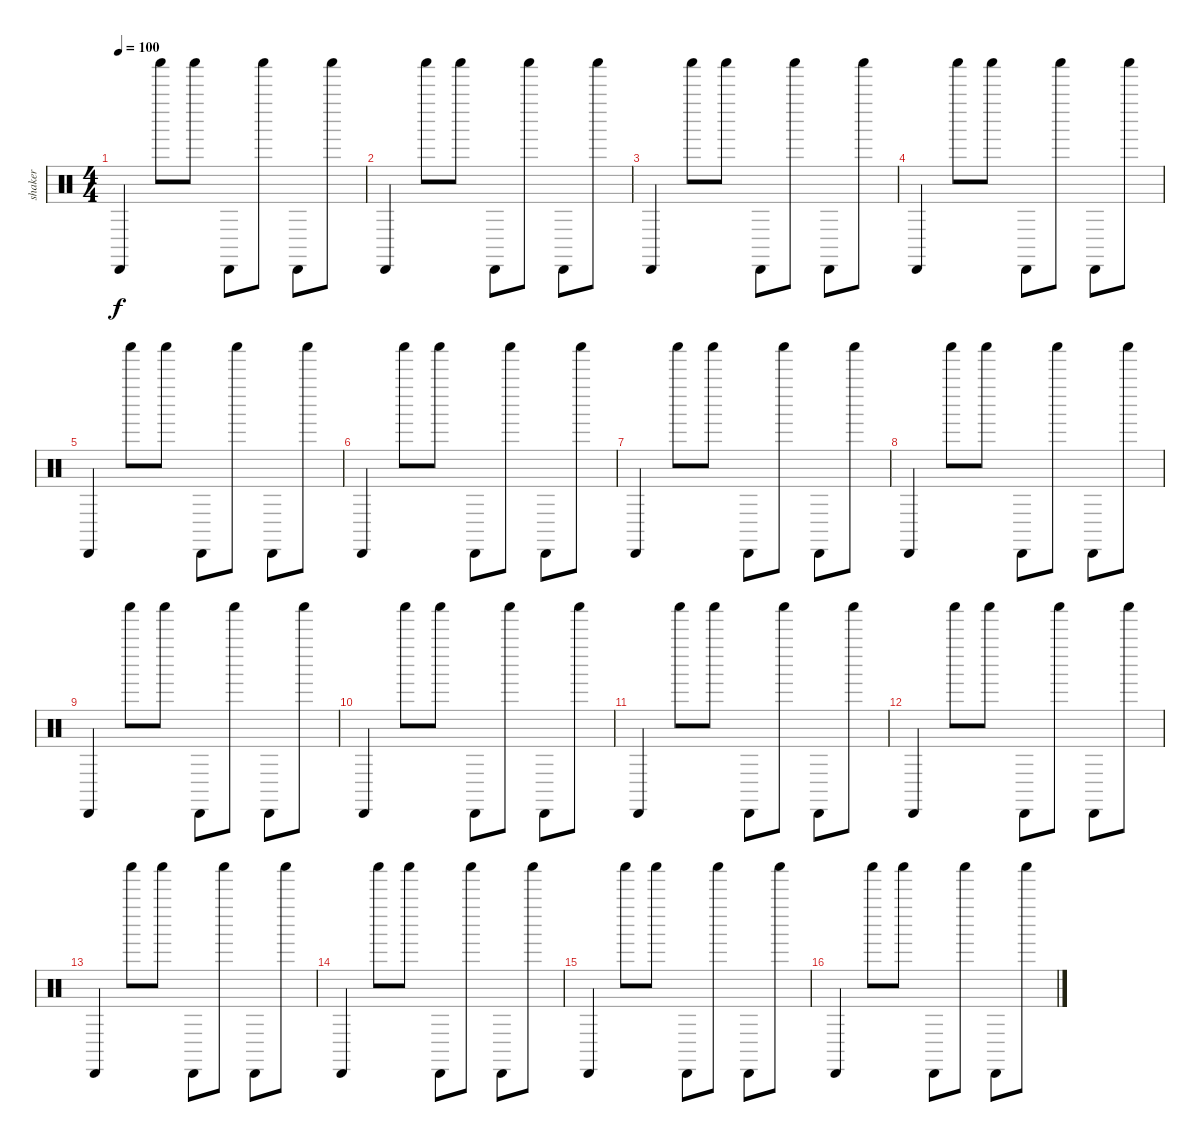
\track ("shaker" "shaker") {instrument percussion}
\staff {score}
\articulation defaults
\ts (4 4)
\tempo 100
\clef neutral
\ks c "Cabasa (hit)".4{dy f} "Shaker (hit)".8 "Shaker (hit)".8 "Cabasa (hit)".8 "Shaker (hit)".8 "Cabasa (hit)".8 "Shaker (hit)".8
|
"Cabasa (hit)".4 "Shaker (hit)".8 "Shaker (hit)".8 "Cabasa (hit)".8 "Shaker (hit)".8 "Cabasa (hit)".8 "Shaker (hit)".8 |
"Cabasa (hit)".4 "Shaker (hit)".8 "Shaker (hit)".8 "Cabasa (hit)".8 "Shaker (hit)".8 "Cabasa (hit)".8 "Shaker (hit)".8 |
"Cabasa (hit)".4 "Shaker (hit)".8 "Shaker (hit)".8 "Cabasa (hit)".8 "Shaker (hit)".8 "Cabasa (hit)".8 "Shaker (hit)".8 |
"Cabasa (hit)".4 "Shaker (hit)".8 "Shaker (hit)".8 "Cabasa (hit)".8 "Shaker (hit)".8 "Cabasa (hit)".8 "Shaker (hit)".8 |
"Cabasa (hit)".4 "Shaker (hit)".8 "Shaker (hit)".8 "Cabasa (hit)".8 "Shaker (hit)".8 "Cabasa (hit)".8 "Shaker (hit)".8 |
"Cabasa (hit)".4 "Shaker (hit)".8 "Shaker (hit)".8 "Cabasa (hit)".8 "Shaker (hit)".8 "Cabasa (hit)".8 "Shaker (hit)".8 |
"Cabasa (hit)".4 "Shaker (hit)".8 "Shaker (hit)".8 "Cabasa (hit)".8 "Shaker (hit)".8 "Cabasa (hit)".8 "Shaker (hit)".8 |
"Cabasa (hit)".4 "Shaker (hit)".8 "Shaker (hit)".8 "Cabasa (hit)".8 "Shaker (hit)".8 "Cabasa (hit)".8 "Shaker (hit)".8 |
"Cabasa (hit)".4 "Shaker (hit)".8 "Shaker (hit)".8 "Cabasa (hit)".8 "Shaker (hit)".8 "Cabasa (hit)".8 "Shaker (hit)".8 |
"Cabasa (hit)".4 "Shaker (hit)".8 "Shaker (hit)".8 "Cabasa (hit)".8 "Shaker (hit)".8 "Cabasa (hit)".8 "Shaker (hit)".8 |
"Cabasa (hit)".4 "Shaker (hit)".8 "Shaker (hit)".8 "Cabasa (hit)".8 "Shaker (hit)".8 "Cabasa (hit)".8 "Shaker (hit)".8 |
"Cabasa (hit)".4 "Shaker (hit)".8 "Shaker (hit)".8 "Cabasa (hit)".8 "Shaker (hit)".8 "Cabasa (hit)".8 "Shaker (hit)".8 |
"Cabasa (hit)".4 "Shaker (hit)".8 "Shaker (hit)".8 "Cabasa (hit)".8 "Shaker (hit)".8 "Cabasa (hit)".8 "Shaker (hit)".8 |
"Cabasa (hit)".4 "Shaker (hit)".8 "Shaker (hit)".8 "Cabasa (hit)".8 "Shaker (hit)".8 "Cabasa (hit)".8 "Shaker (hit)".8 |
"Cabasa (hit)".4 "Shaker (hit)".8 "Shaker (hit)".8 "Cabasa (hit)".8 "Shaker (hit)".8 "Cabasa (hit)".8 "Shaker (hit)".8
